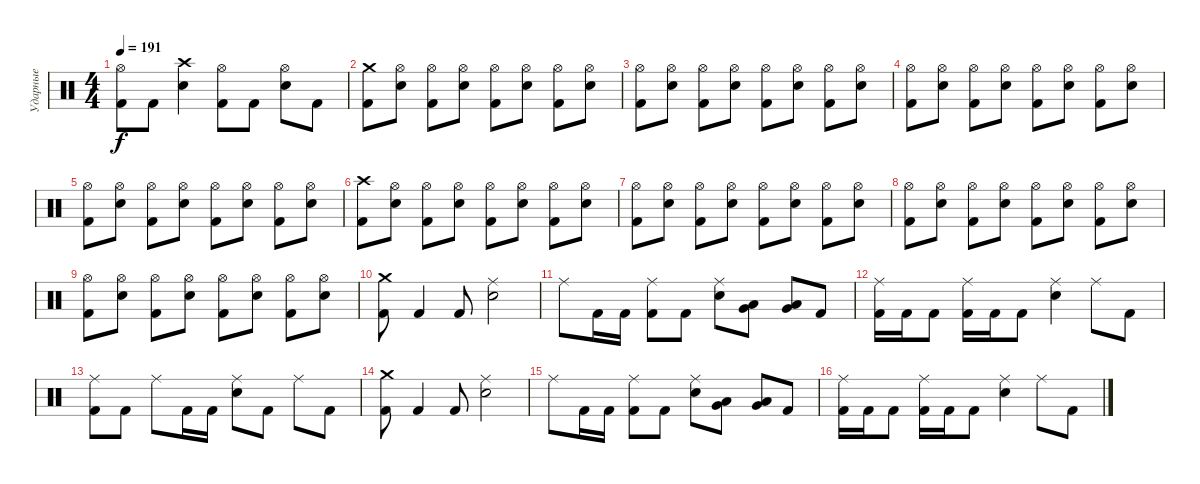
\track ("Ударные" "Ударные") {instrument percussion}
\staff {score}
\articulation defaults
\ts (4 4)
\tempo 191
\clef neutral
\ks c
("Hi-Hat (open)" "Kick (hit) 2").8{dy f} "Kick (hit) 2".8 ("Crash high (hit)" "Snare (hit) 2").4 ("Hi-Hat (open)" "Kick (hit) 2").8 "Kick (hit) 2".8 ("Hi-Hat (open)" "Snare (hit) 2").8 "Kick (hit) 2".8 |
("Crash medium (hit)" "Kick (hit) 2").8 ("Hi-Hat (open)" "Snare (hit) 2").8 ("Hi-Hat (open)" "Kick (hit) 2").8 ("Hi-Hat (open)" "Snare (hit) 2").8 ("Hi-Hat (open)" "Kick (hit) 2").8 ("Hi-Hat (open)" "Snare (hit) 2").8 ("Hi-Hat (open)" "Kick (hit) 2").8 ("Hi-Hat (open)" "Snare (hit) 2").8 |
("Hi-Hat (open)" "Kick (hit) 2").8 ("Hi-Hat (open)" "Snare (hit) 2").8 ("Hi-Hat (open)" "Kick (hit) 2").8 ("Hi-Hat (open)" "Snare (hit) 2").8 ("Hi-Hat (open)" "Kick (hit) 2").8 ("Hi-Hat (open)" "Snare (hit) 2").8 ("Hi-Hat (open)" "Kick (hit) 2").8 ("Hi-Hat (open)" "Snare (hit) 2").8 |
("Hi-Hat (open)" "Kick (hit) 2").8 ("Hi-Hat (open)" "Snare (hit) 2").8 ("Hi-Hat (open)" "Kick (hit) 2").8 ("Hi-Hat (open)" "Snare (hit) 2").8 ("Hi-Hat (open)" "Kick (hit) 2").8 ("Hi-Hat (open)" "Snare (hit) 2").8 ("Hi-Hat (open)" "Kick (hit) 2").8 ("Hi-Hat (open)" "Snare (hit) 2").8 |
("Hi-Hat (open)" "Kick (hit) 2").8 ("Hi-Hat (open)" "Snare (hit) 2").8 ("Hi-Hat (open)" "Kick (hit) 2").8 ("Hi-Hat (open)" "Snare (hit) 2").8 ("Hi-Hat (open)" "Kick (hit) 2").8 ("Hi-Hat (open)" "Snare (hit) 2").8 ("Hi-Hat (open)" "Kick (hit) 2").8 ("Hi-Hat (open)" "Snare (hit) 2").8 |
("Crash high (hit)" "Kick (hit) 2").8 ("Hi-Hat (open)" "Snare (hit) 2").8 ("Hi-Hat (open)" "Kick (hit) 2").8 ("Hi-Hat (open)" "Snare (hit) 2").8 ("Hi-Hat (open)" "Kick (hit) 2").8 ("Hi-Hat (open)" "Snare (hit) 2").8 ("Hi-Hat (open)" "Kick (hit) 2").8 ("Hi-Hat (open)" "Snare (hit) 2").8 |
("Hi-Hat (open)" "Kick (hit) 2").8 ("Hi-Hat (open)" "Snare (hit) 2").8 ("Hi-Hat (open)" "Kick (hit) 2").8 ("Hi-Hat (open)" "Snare (hit) 2").8 ("Hi-Hat (open)" "Kick (hit) 2").8 ("Hi-Hat (open)" "Snare (hit) 2").8 ("Hi-Hat (open)" "Kick (hit) 2").8 ("Hi-Hat (open)" "Snare (hit) 2").8 |
("Hi-Hat (open)" "Kick (hit) 2").8 ("Hi-Hat (open)" "Snare (hit) 2").8 ("Hi-Hat (open)" "Kick (hit) 2").8 ("Hi-Hat (open)" "Snare (hit) 2").8 ("Hi-Hat (open)" "Kick (hit) 2").8 ("Hi-Hat (open)" "Snare (hit) 2").8 ("Hi-Hat (open)" "Kick (hit) 2").8 ("Hi-Hat (open)" "Snare (hit) 2").8 |
("Hi-Hat (open)" "Kick (hit) 2").8 ("Hi-Hat (open)" "Snare (hit) 2").8 ("Hi-Hat (open)" "Kick (hit) 2").8 ("Hi-Hat (open)" "Snare (hit) 2").8 ("Hi-Hat (open)" "Kick (hit) 2").8 ("Hi-Hat (open)" "Snare (hit) 2").8 ("Hi-Hat (open)" "Kick (hit) 2").8 ("Hi-Hat (open)" "Snare (hit) 2").8 |
("Crash medium (hit)" "Kick (hit) 2").8 "Kick (hit) 2".4 "Kick (hit) 2".8 ("Ride (middle)" "Snare (hit) 2").2 |
"Ride (middle)".8 "Kick (hit) 2".16 "Kick (hit) 2".16 ("Ride (middle)" "Kick (hit) 2").8 "Kick (hit) 2".8 ("Ride (middle)" "Snare (hit) 2").8 ("Very Low Tom (hit)" "Low Tom (hit)").8 ("Very Low Tom (hit)" "Low Tom (hit)").8 "Kick (hit) 2".8 |
("Ride (middle)" "Kick (hit) 2").16 "Kick (hit) 2".16 "Kick (hit) 2".8 ("Ride (middle)" "Kick (hit) 2").16 "Kick (hit) 2".16 "Kick (hit) 2".8 ("Ride (middle)" "Snare (hit) 2").4 "Ride (middle)".8 "Kick (hit) 2".8 |
("Ride (middle)" "Kick (hit) 2").8 "Kick (hit) 2".8 "Ride (middle)".8 "Kick (hit) 2".16 "Kick (hit) 2".16 ("Ride (middle)" "Snare (hit) 2").8 "Kick (hit) 2".8 "Ride (middle)".8 "Kick (hit) 2".8 |
("Crash medium (hit)" "Kick (hit) 2").8 "Kick (hit) 2".4 "Kick (hit) 2".8 ("Ride (middle)" "Snare (hit) 2").2 |
"Ride (middle)".8 "Kick (hit) 2".16 "Kick (hit) 2".16 ("Ride (middle)" "Kick (hit) 2").8 "Kick (hit) 2".8 ("Ride (middle)" "Snare (hit) 2").8 ("Very Low Tom (hit)" "Low Tom (hit)").8 ("Very Low Tom (hit)" "Low Tom (hit)").8 "Kick (hit) 2".8 |
("Ride (middle)" "Kick (hit) 2").16 "Kick (hit) 2".16 "Kick (hit) 2".8 ("Ride (middle)" "Kick (hit) 2").16 "Kick (hit) 2".16 "Kick (hit) 2".8 ("Ride (middle)" "Snare (hit) 2").4 "Ride (middle)".8 "Kick (hit) 2".8
